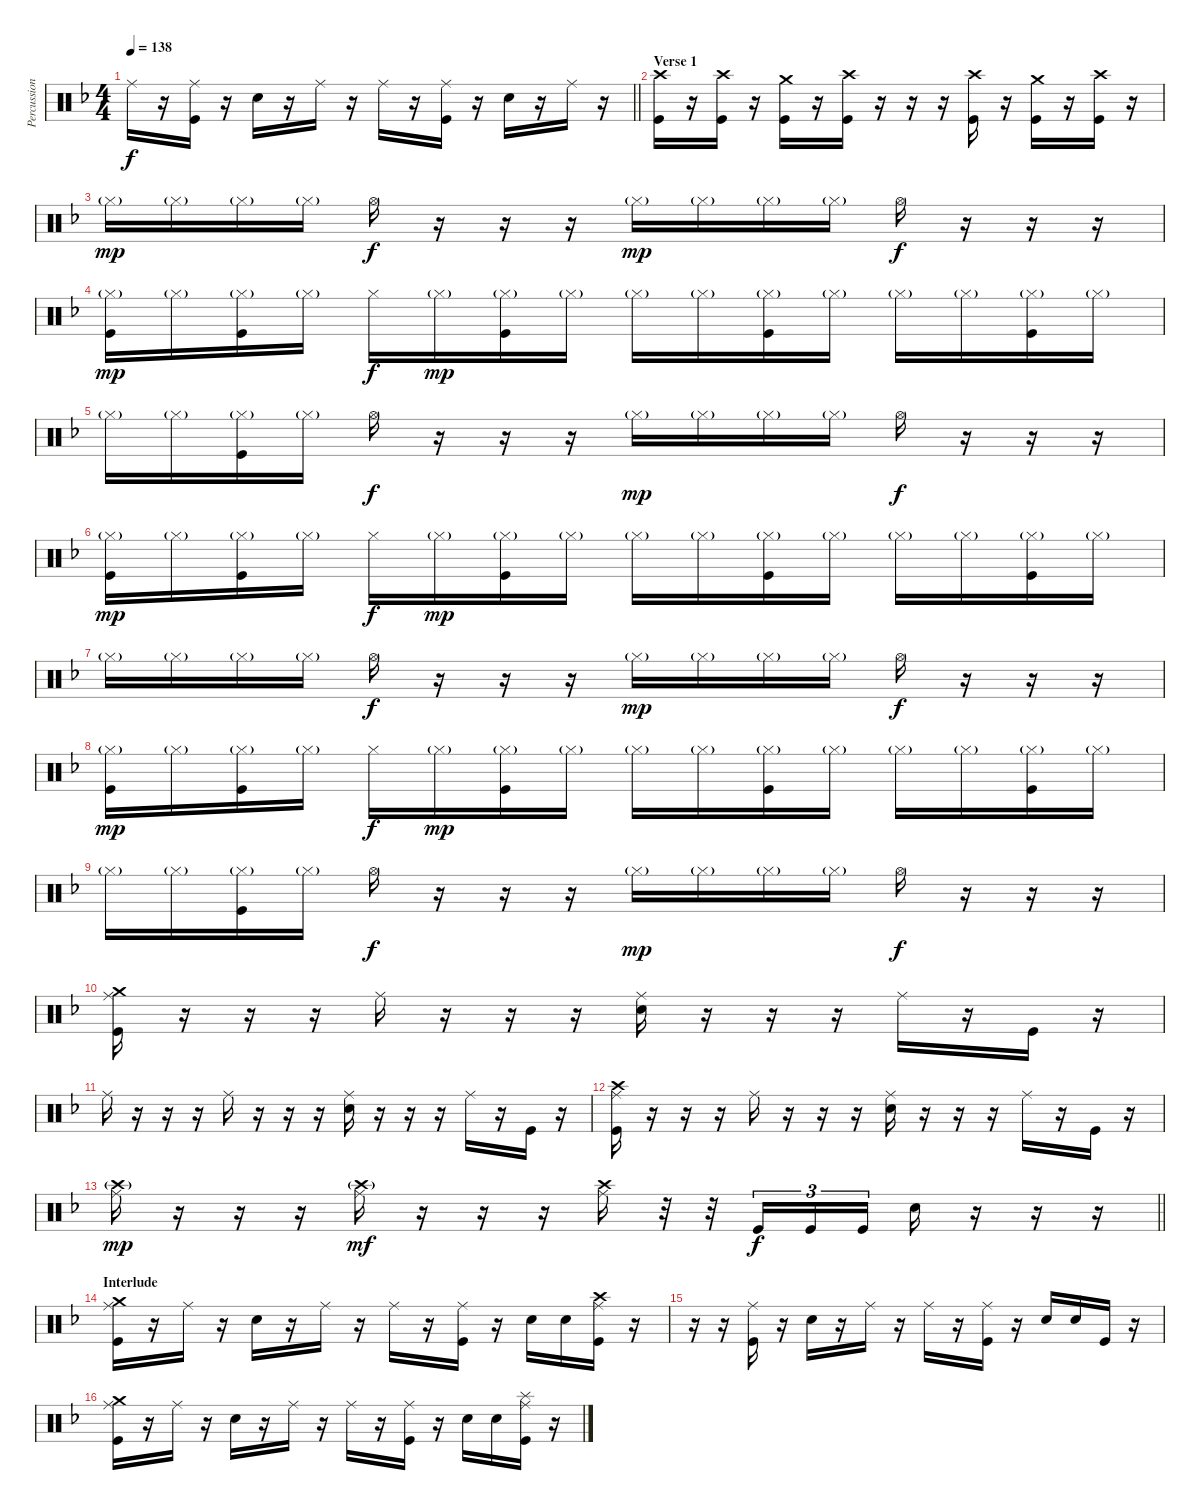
\track ("Percussion" "Percussion") {instrument percussion}
\staff {score}
\articulation defaults
\ts (4 4)
\tempo 138
\clef neutral
\barLineRight lightlight
\ks f "Ride (middle)".16{dy f}
r.16 ("Ride (middle)" "Kick (hit)").16 r.16 "Electric Snare (hit)".16 r.16 "Ride (middle)".16 r.16 "Ride (middle)".16 r.16 ("Ride (middle)" "Kick (hit)").16 r.16 "Electric Snare (hit)".16 r.16 "Ride (middle)".16 r.16 |
\section ("" "Verse 1")
("Crash high (hit)" "Kick (hit)").16 r.16 ("Crash high (hit)" "Kick (hit)").16 r.16 ("Crash medium (hit)" "Kick (hit)").16 r.16 ("Crash high (hit)" "Kick (hit)").16 r.16 r.16 r.16 ("Crash high (hit)" "Kick (hit)").16 r.16 ("Crash medium (hit)" "Kick (hit)").16 r.16 ("Crash high (hit)" "Kick (hit)").16 r.16 |
"Hi-Hat (closed)"{g}.16{dy mp} "Hi-Hat (closed)"{g}.16 "Hi-Hat (closed)"{g}.16 "Hi-Hat (closed)"{g}.16 "Hi-Hat (open)".16{dy f} r.16 r.16 r.16 "Hi-Hat (closed)"{g}.16{dy mp} "Hi-Hat (closed)"{g}.16 "Hi-Hat (closed)"{g}.16 "Hi-Hat (closed)"{g}.16 "Hi-Hat (open)".16{dy f} r.16 r.16 r.16 |
("Hi-Hat (closed)"{g} "Kick (hit)").16{dy mp} "Hi-Hat (closed)"{g}.16 ("Hi-Hat (closed)"{g} "Kick (hit)").16 "Hi-Hat (closed)"{g}.16 "Hi-Hat (closed)".16{dy f} "Hi-Hat (closed)"{g}.16{dy mp} ("Hi-Hat (closed)"{g} "Kick (hit)").16 "Hi-Hat (closed)"{g}.16 "Hi-Hat (closed)"{g}.16 "Hi-Hat (closed)"{g}.16 ("Hi-Hat (closed)"{g} "Kick (hit)").16 "Hi-Hat (closed)"{g}.16 "Hi-Hat (closed)"{g}.16 "Hi-Hat (closed)"{g}.16 ("Hi-Hat (closed)"{g} "Kick (hit)").16 "Hi-Hat (closed)"{g}.16 |
"Hi-Hat (closed)"{g}.16 "Hi-Hat (closed)"{g}.16 ("Hi-Hat (closed)"{g} "Kick (hit)").16 "Hi-Hat (closed)"{g}.16 "Hi-Hat (open)".16{dy f} r.16 r.16 r.16 "Hi-Hat (closed)"{g}.16{dy mp} "Hi-Hat (closed)"{g}.16 "Hi-Hat (closed)"{g}.16 "Hi-Hat (closed)"{g}.16 "Hi-Hat (open)".16{dy f} r.16 r.16 r.16 |
("Hi-Hat (closed)"{g} "Kick (hit)").16{dy mp} "Hi-Hat (closed)"{g}.16 ("Hi-Hat (closed)"{g} "Kick (hit)").16 "Hi-Hat (closed)"{g}.16 "Hi-Hat (closed)".16{dy f} "Hi-Hat (closed)"{g}.16{dy mp} ("Hi-Hat (closed)"{g} "Kick (hit)").16 "Hi-Hat (closed)"{g}.16 "Hi-Hat (closed)"{g}.16 "Hi-Hat (closed)"{g}.16 ("Hi-Hat (closed)"{g} "Kick (hit)").16 "Hi-Hat (closed)"{g}.16 "Hi-Hat (closed)"{g}.16 "Hi-Hat (closed)"{g}.16 ("Hi-Hat (closed)"{g} "Kick (hit)").16 "Hi-Hat (closed)"{g}.16 |
"Hi-Hat (closed)"{g}.16 "Hi-Hat (closed)"{g}.16 "Hi-Hat (closed)"{g}.16 "Hi-Hat (closed)"{g}.16 "Hi-Hat (open)".16{dy f} r.16 r.16 r.16 "Hi-Hat (closed)"{g}.16{dy mp} "Hi-Hat (closed)"{g}.16 "Hi-Hat (closed)"{g}.16 "Hi-Hat (closed)"{g}.16 "Hi-Hat (open)".16{dy f} r.16 r.16 r.16 |
("Hi-Hat (closed)"{g} "Kick (hit)").16{dy mp} "Hi-Hat (closed)"{g}.16 ("Hi-Hat (closed)"{g} "Kick (hit)").16 "Hi-Hat (closed)"{g}.16 "Hi-Hat (closed)".16{dy f} "Hi-Hat (closed)"{g}.16{dy mp} ("Hi-Hat (closed)"{g} "Kick (hit)").16 "Hi-Hat (closed)"{g}.16 "Hi-Hat (closed)"{g}.16 "Hi-Hat (closed)"{g}.16 ("Hi-Hat (closed)"{g} "Kick (hit)").16 "Hi-Hat (closed)"{g}.16 "Hi-Hat (closed)"{g}.16 "Hi-Hat (closed)"{g}.16 ("Hi-Hat (closed)"{g} "Kick (hit)").16 "Hi-Hat (closed)"{g}.16 |
"Hi-Hat (closed)"{g}.16 "Hi-Hat (closed)"{g}.16 ("Hi-Hat (closed)"{g} "Kick (hit)").16 "Hi-Hat (closed)"{g}.16 "Hi-Hat (open)".16{dy f} r.16 r.16 r.16 "Hi-Hat (closed)"{g}.16{dy mp} "Hi-Hat (closed)"{g}.16 "Hi-Hat (closed)"{g}.16 "Hi-Hat (closed)"{g}.16 "Hi-Hat (open)".16{dy f} r.16 r.16 r.16 |
("Ride (middle)" "Crash medium (hit)" "Kick (hit)").16 r.16 r.16 r.16 "Ride (middle)".16 r.16 r.16 r.16 ("Ride (middle)" "Electric Snare (hit)").16 r.16 r.16 r.16 "Ride (middle)".16 r.16 "Kick (hit)".16 r.16 |
"Ride (middle)".16 r.16 r.16 r.16 "Ride (middle)".16 r.16 r.16 r.16 ("Ride (middle)" "Electric Snare (hit)").16 r.16 r.16 r.16 "Ride (middle)".16 r.16 "Kick (hit)".16 r.16 |
("Ride (middle)" "Crash high (hit)" "Kick (hit)").16 r.16 r.16 r.16 "Ride (middle)".16 r.16 r.16 r.16 ("Ride (middle)" "Electric Snare (hit)").16 r.16 r.16 r.16 "Ride (middle)".16 r.16 "Kick (hit)".16 r.16 |
\barLineRight lightlight
("Ride (middle)" "Crash high (hit)"{g}).16{dy mp} r.16 r.16 r.16 ("Ride (middle)" "Crash high (hit)"{g}).16{dy mf} r.16 r.16 r.16 ("Ride (middle)" "Crash high (hit)").16 r.32 r.32 "Kick (hit)".16{tu (3 2) dy f} "Kick (hit)".16{tu (3 2)} "Kick (hit)".16{tu (3 2)} "Electric Snare (hit)".16 r.16 r.16 r.16 |
\section ("" "Interlude")
("Ride (middle)" "Crash medium (hit)" "Kick (hit)").16 r.16 "Ride (middle)".16 r.16 "Electric Snare (hit)".16 r.16 "Ride (middle)".16 r.16 "Ride (middle)".16 r.16 ("Ride (middle)" "Kick (hit)").16 r.16 "Electric Snare (hit)".16 "Electric Snare (hit)".16 ("Ride (middle)" "Crash high (hit)" "Kick (hit)").16 r.16 |
r.16 r.16 ("Ride (middle)" "Kick (hit)").16 r.16 "Electric Snare (hit)".16 r.16 "Ride (middle)".16 r.16 "Ride (middle)".16 r.16 ("Ride (middle)" "Kick (hit)").16 r.16 "Electric Snare (hit)".16 "Electric Snare (hit)".16 "Kick (hit)".16 r.16 |
("Ride (middle)" "Crash medium (hit)" "Kick (hit)").16 r.16 "Ride (middle)".16 r.16 "Electric Snare (hit)".16 r.16 "Ride (middle)".16 r.16 "Ride (middle)".16 r.16 ("Ride (middle)" "Kick (hit)").16 r.16 "Electric Snare (hit)".16 "Electric Snare (hit)".16 ("Ride (middle)" "Splash (hit)" "Kick (hit)").16 r.16
